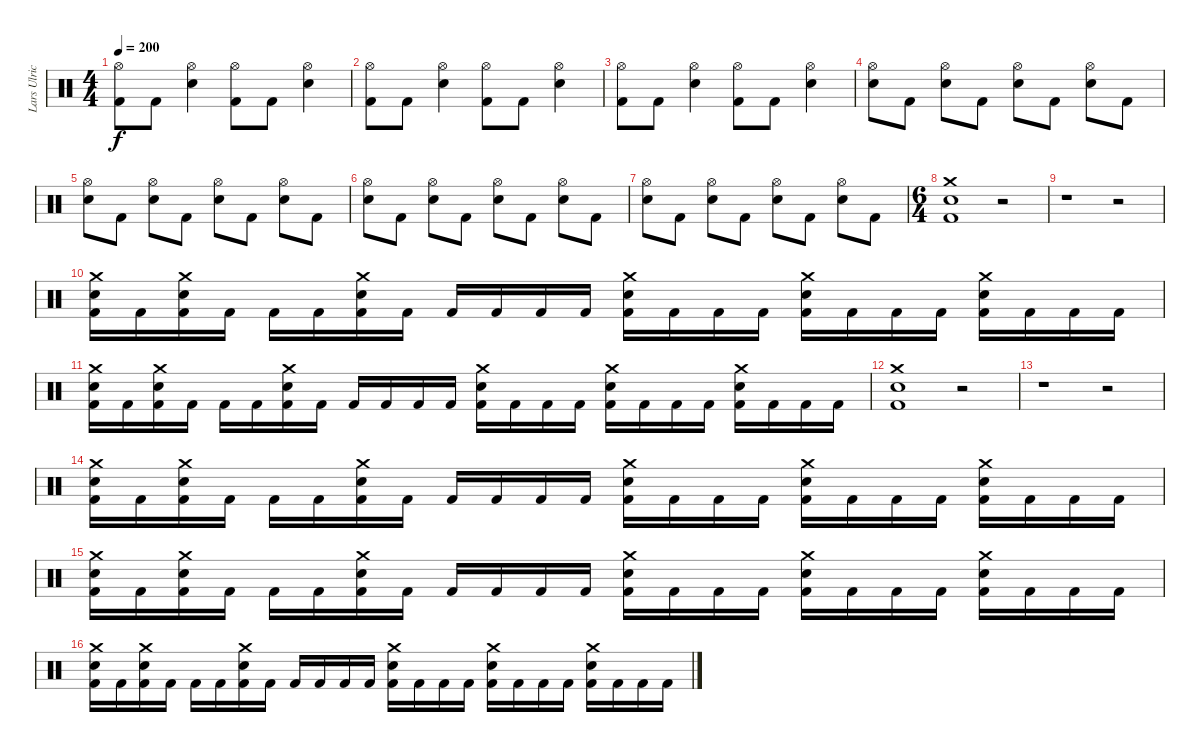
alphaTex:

\track ("Lars Ulrich" "Lars Ulric") {instrument percussion}
\staff {score}
\articulation defaults
\ts (4 4)
\tempo 200
\clef neutral
\ks c
("Hi-Hat (open)" "Kick (hit) 2").8{dy f} "Kick (hit) 2".8 ("Hi-Hat (open)" "Electric Snare (hit)").4 ("Hi-Hat (open)" "Kick (hit) 2").8 "Kick (hit) 2".8 ("Hi-Hat (open)" "Electric Snare (hit)").4 |
("Hi-Hat (open)" "Kick (hit) 2").8 "Kick (hit) 2".8 ("Hi-Hat (open)" "Electric Snare (hit)").4 ("Hi-Hat (open)" "Kick (hit) 2").8 "Kick (hit) 2".8 ("Hi-Hat (open)" "Electric Snare (hit)").4 |
("Hi-Hat (open)" "Kick (hit) 2").8 "Kick (hit) 2".8 ("Hi-Hat (open)" "Electric Snare (hit)").4 ("Hi-Hat (open)" "Kick (hit) 2").8 "Kick (hit) 2".8 ("Hi-Hat (open)" "Electric Snare (hit)").4 |
("Hi-Hat (open)" "Electric Snare (hit)").8 "Kick (hit) 2".8 ("Hi-Hat (open)" "Electric Snare (hit)").8 "Kick (hit) 2".8 ("Hi-Hat (open)" "Electric Snare (hit)").8 "Kick (hit) 2".8 ("Hi-Hat (open)" "Electric Snare (hit)").8 "Kick (hit) 2".8 |
("Hi-Hat (open)" "Electric Snare (hit)").8 "Kick (hit) 2".8 ("Hi-Hat (open)" "Electric Snare (hit)").8 "Kick (hit) 2".8 ("Hi-Hat (open)" "Electric Snare (hit)").8 "Kick (hit) 2".8 ("Hi-Hat (open)" "Electric Snare (hit)").8 "Kick (hit) 2".8 |
("Hi-Hat (open)" "Electric Snare (hit)").8 "Kick (hit) 2".8 ("Hi-Hat (open)" "Electric Snare (hit)").8 "Kick (hit) 2".8 ("Hi-Hat (open)" "Electric Snare (hit)").8 "Kick (hit) 2".8 ("Hi-Hat (open)" "Electric Snare (hit)").8 "Kick (hit) 2".8 |
("Hi-Hat (open)" "Electric Snare (hit)").8 "Kick (hit) 2".8 ("Hi-Hat (open)" "Electric Snare (hit)").8 "Kick (hit) 2".8 ("Hi-Hat (open)" "Electric Snare (hit)").8 "Kick (hit) 2".8 ("Hi-Hat (open)" "Electric Snare (hit)").8 "Kick (hit) 2".8 |
\ts (6 4)
("Crash medium (hit)" "Electric Snare (hit)" "Kick (hit) 2").1 r.2 |
r.1 r.2 |
("Crash medium (hit)" "Electric Snare (hit)" "Kick (hit) 2").16 "Kick (hit) 2".16 ("Crash medium (hit)" "Electric Snare (hit)" "Kick (hit) 2").16 "Kick (hit) 2".16 "Kick (hit) 2".16 "Kick (hit) 2".16 ("Crash medium (hit)" "Electric Snare (hit)" "Kick (hit) 2").16 "Kick (hit) 2".16 "Kick (hit) 2".16 "Kick (hit) 2".16 "Kick (hit) 2".16 "Kick (hit) 2".16 ("Crash medium (hit)" "Electric Snare (hit)" "Kick (hit) 2").16 "Kick (hit) 2".16 "Kick (hit) 2".16 "Kick (hit) 2".16 ("Crash medium (hit)" "Electric Snare (hit)" "Kick (hit) 2").16 "Kick (hit) 2".16 "Kick (hit) 2".16 "Kick (hit) 2".16 ("Crash medium (hit)" "Electric Snare (hit)" "Kick (hit) 2").16 "Kick (hit) 2".16 "Kick (hit) 2".16 "Kick (hit) 2".16 |
("Crash medium (hit)" "Electric Snare (hit)" "Kick (hit) 2").16 "Kick (hit) 2".16 ("Crash medium (hit)" "Electric Snare (hit)" "Kick (hit) 2").16 "Kick (hit) 2".16 "Kick (hit) 2".16 "Kick (hit) 2".16 ("Crash medium (hit)" "Electric Snare (hit)" "Kick (hit) 2").16 "Kick (hit) 2".16 "Kick (hit) 2".16 "Kick (hit) 2".16 "Kick (hit) 2".16 "Kick (hit) 2".16 ("Crash medium (hit)" "Electric Snare (hit)" "Kick (hit) 2").16 "Kick (hit) 2".16 "Kick (hit) 2".16 "Kick (hit) 2".16 ("Crash medium (hit)" "Electric Snare (hit)" "Kick (hit) 2").16 "Kick (hit) 2".16 "Kick (hit) 2".16 "Kick (hit) 2".16 ("Crash medium (hit)" "Electric Snare (hit)" "Kick (hit) 2").16 "Kick (hit) 2".16 "Kick (hit) 2".16 "Kick (hit) 2".16 |
("Crash medium (hit)" "Electric Snare (hit)" "Kick (hit) 2").1 r.2 |
r.1 r.2 |
("Crash medium (hit)" "Electric Snare (hit)" "Kick (hit) 2").16 "Kick (hit) 2".16 ("Crash medium (hit)" "Electric Snare (hit)" "Kick (hit) 2").16 "Kick (hit) 2".16 "Kick (hit) 2".16 "Kick (hit) 2".16 ("Crash medium (hit)" "Electric Snare (hit)" "Kick (hit) 2").16 "Kick (hit) 2".16 "Kick (hit) 2".16 "Kick (hit) 2".16 "Kick (hit) 2".16 "Kick (hit) 2".16 ("Crash medium (hit)" "Electric Snare (hit)" "Kick (hit) 2").16 "Kick (hit) 2".16 "Kick (hit) 2".16 "Kick (hit) 2".16 ("Crash medium (hit)" "Electric Snare (hit)" "Kick (hit) 2").16 "Kick (hit) 2".16 "Kick (hit) 2".16 "Kick (hit) 2".16 ("Crash medium (hit)" "Electric Snare (hit)" "Kick (hit) 2").16 "Kick (hit) 2".16 "Kick (hit) 2".16 "Kick (hit) 2".16 |
("Crash medium (hit)" "Electric Snare (hit)" "Kick (hit) 2").16 "Kick (hit) 2".16 ("Crash medium (hit)" "Electric Snare (hit)" "Kick (hit) 2").16 "Kick (hit) 2".16 "Kick (hit) 2".16 "Kick (hit) 2".16 ("Crash medium (hit)" "Electric Snare (hit)" "Kick (hit) 2").16 "Kick (hit) 2".16 "Kick (hit) 2".16 "Kick (hit) 2".16 "Kick (hit) 2".16 "Kick (hit) 2".16 ("Crash medium (hit)" "Electric Snare (hit)" "Kick (hit) 2").16 "Kick (hit) 2".16 "Kick (hit) 2".16 "Kick (hit) 2".16 ("Crash medium (hit)" "Electric Snare (hit)" "Kick (hit) 2").16 "Kick (hit) 2".16 "Kick (hit) 2".16 "Kick (hit) 2".16 ("Crash medium (hit)" "Electric Snare (hit)" "Kick (hit) 2").16 "Kick (hit) 2".16 "Kick (hit) 2".16 "Kick (hit) 2".16 |
("Crash medium (hit)" "Electric Snare (hit)" "Kick (hit) 2").16 "Kick (hit) 2".16 ("Crash medium (hit)" "Electric Snare (hit)" "Kick (hit) 2").16 "Kick (hit) 2".16 "Kick (hit) 2".16 "Kick (hit) 2".16 ("Crash medium (hit)" "Electric Snare (hit)" "Kick (hit) 2").16 "Kick (hit) 2".16 "Kick (hit) 2".16 "Kick (hit) 2".16 "Kick (hit) 2".16 "Kick (hit) 2".16 ("Crash medium (hit)" "Electric Snare (hit)" "Kick (hit) 2").16 "Kick (hit) 2".16 "Kick (hit) 2".16 "Kick (hit) 2".16 ("Crash medium (hit)" "Electric Snare (hit)" "Kick (hit) 2").16 "Kick (hit) 2".16 "Kick (hit) 2".16 "Kick (hit) 2".16 ("Crash medium (hit)" "Electric Snare (hit)" "Kick (hit) 2").16 "Kick (hit) 2".16 "Kick (hit) 2".16 "Kick (hit) 2".16
